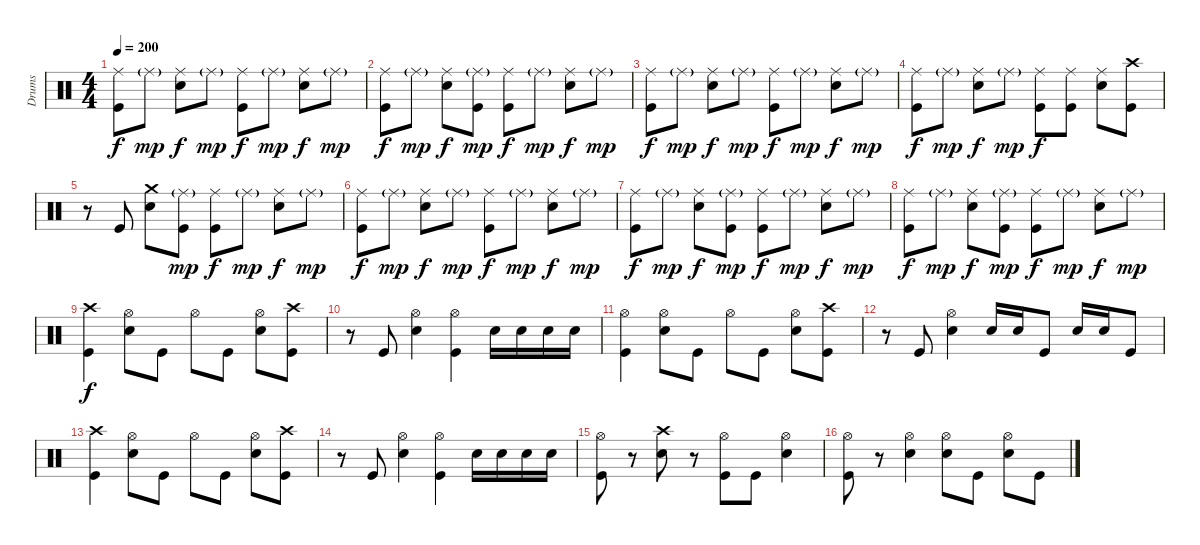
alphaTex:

\track ("Drums" "Drums") {instrument percussion}
\staff {score}
\articulation defaults
\ts (4 4)
\tempo 200
\clef neutral
\ks c
("Ride (middle)" "Kick (hit)").8{dy f} "Ride (middle)"{g}.8{dy mp} ("Ride (middle)" "Electric Snare (hit)").8{dy f} "Ride (middle)"{g}.8{dy mp} ("Ride (middle)" "Kick (hit)").8{dy f} "Ride (middle)"{g}.8{dy mp} ("Ride (middle)" "Electric Snare (hit)").8{dy f} "Ride (middle)"{g}.8{dy mp} |
("Ride (middle)" "Kick (hit)").8{dy f} "Ride (middle)"{g}.8{dy mp} ("Ride (middle)" "Electric Snare (hit)").8{dy f} ("Ride (middle)"{g} "Kick (hit)").8{dy mp} ("Ride (middle)" "Kick (hit)").8{dy f} "Ride (middle)"{g}.8{dy mp} ("Ride (middle)" "Electric Snare (hit)").8{dy f} "Ride (middle)"{g}.8{dy mp} |
("Ride (middle)" "Kick (hit)").8{dy f} "Ride (middle)"{g}.8{dy mp} ("Ride (middle)" "Electric Snare (hit)").8{dy f} "Ride (middle)"{g}.8{dy mp} ("Ride (middle)" "Kick (hit)").8{dy f} "Ride (middle)"{g}.8{dy mp} ("Ride (middle)" "Electric Snare (hit)").8{dy f} "Ride (middle)"{g}.8{dy mp} |
("Ride (middle)" "Kick (hit)").8{dy f} "Ride (middle)"{g}.8{dy mp} ("Ride (middle)" "Electric Snare (hit)").8{dy f} "Ride (middle)"{g}.8{dy mp} ("Ride (middle)" "Kick (hit)").8{dy f} ("Ride (middle)" "Kick (hit)").8 ("Ride (middle)" "Electric Snare (hit)").8 ("Crash high (hit)" "Kick (hit)").8 |
r.8 "Kick (hit)".8 ("Crash medium (hit)" "Electric Snare (hit)").8 ("Ride (middle)"{g} "Kick (hit)").8{dy mp} ("Ride (middle)" "Kick (hit)").8{dy f} "Ride (middle)"{g}.8{dy mp} ("Ride (middle)" "Electric Snare (hit)").8{dy f} "Ride (middle)"{g}.8{dy mp} |
("Ride (middle)" "Kick (hit)").8{dy f} "Ride (middle)"{g}.8{dy mp} ("Ride (middle)" "Electric Snare (hit)").8{dy f} "Ride (middle)"{g}.8{dy mp} ("Ride (middle)" "Kick (hit)").8{dy f} "Ride (middle)"{g}.8{dy mp} ("Ride (middle)" "Electric Snare (hit)").8{dy f} "Ride (middle)"{g}.8{dy mp} |
("Ride (middle)" "Kick (hit)").8{dy f} "Ride (middle)"{g}.8{dy mp} ("Ride (middle)" "Electric Snare (hit)").8{dy f} ("Ride (middle)"{g} "Kick (hit)").8{dy mp} ("Ride (middle)" "Kick (hit)").8{dy f} "Ride (middle)"{g}.8{dy mp} ("Ride (middle)" "Electric Snare (hit)").8{dy f} "Ride (middle)"{g}.8{dy mp} |
("Ride (middle)" "Kick (hit)").8{dy f} "Ride (middle)"{g}.8{dy mp} ("Ride (middle)" "Electric Snare (hit)").8{dy f} ("Ride (middle)"{g} "Kick (hit)").8{dy mp} ("Ride (middle)" "Kick (hit)").8{dy f} "Ride (middle)"{g}.8{dy mp} ("Ride (middle)" "Electric Snare (hit)").8{dy f} "Ride (middle)"{g}.8{dy mp} |
("Crash high (hit)" "Kick (hit)").4{dy f} ("Hi-Hat (open)" "Electric Snare (hit)").8 "Kick (hit)".8 "Hi-Hat (open)".8 "Kick (hit)".8 ("Hi-Hat (open)" "Electric Snare (hit)").8 ("Crash high (hit)" "Kick (hit)").8 |
r.8 "Kick (hit)".8 ("Hi-Hat (open)" "Electric Snare (hit)").4 ("Hi-Hat (open)" "Kick (hit)").4 "Electric Snare (hit)".16 "Electric Snare (hit)".16 "Electric Snare (hit)".16 "Electric Snare (hit)".16 |
("Hi-Hat (open)" "Kick (hit)").4 ("Hi-Hat (open)" "Electric Snare (hit)").8 "Kick (hit)".8 "Hi-Hat (open)".8 "Kick (hit)".8 ("Hi-Hat (open)" "Electric Snare (hit)").8 ("Crash high (hit)" "Kick (hit)").8 |
r.8 "Kick (hit)".8 ("Hi-Hat (open)" "Electric Snare (hit)").4 "Electric Snare (hit)".16 "Electric Snare (hit)".16 "Kick (hit)".8 "Electric Snare (hit)".16 "Electric Snare (hit)".16 "Kick (hit)".8 |
("Crash high (hit)" "Kick (hit)").4 ("Hi-Hat (open)" "Electric Snare (hit)").8 "Kick (hit)".8 "Hi-Hat (open)".8 "Kick (hit)".8 ("Hi-Hat (open)" "Electric Snare (hit)").8 ("Crash high (hit)" "Kick (hit)").8 |
r.8 "Kick (hit)".8 ("Hi-Hat (open)" "Electric Snare (hit)").4 ("Hi-Hat (open)" "Kick (hit)").4 "Electric Snare (hit)".16 "Electric Snare (hit)".16 "Electric Snare (hit)".16 "Electric Snare (hit)".16 |
("Hi-Hat (open)" "Kick (hit)").8 r.8 ("Crash high (hit)" "Electric Snare (hit)").8 r.8 ("Hi-Hat (open)" "Kick (hit)").8 "Kick (hit)".8 ("Hi-Hat (open)" "Electric Snare (hit)").4 |
("Hi-Hat (open)" "Kick (hit)").8 r.8 ("Hi-Hat (open)" "Electric Snare (hit)").4 ("Hi-Hat (open)" "Electric Snare (hit)").8 "Kick (hit)".8 ("Hi-Hat (open)" "Electric Snare (hit)").8 "Kick (hit)".8
